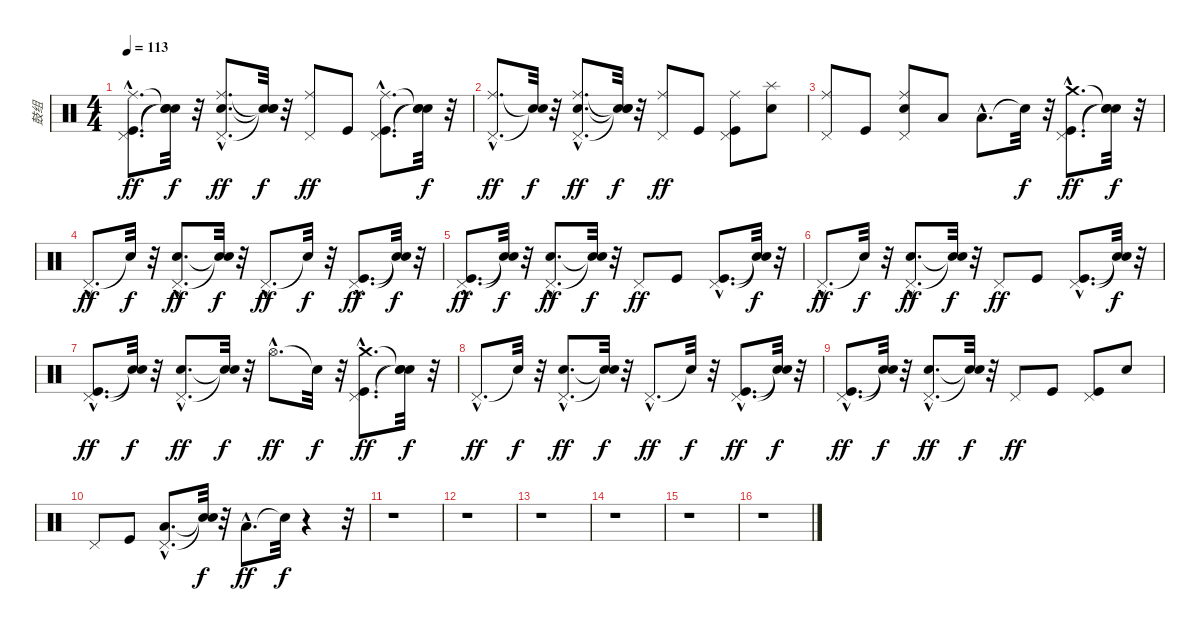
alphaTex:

\track ("鼓组" "鼓组") {instrument percussion}
\staff {score}
\articulation defaults
\ts (4 4)
\tempo 113
\clef neutral
\ks c
("Kick (hit)"{hac} "Pedal Hi-Hat (hit)"{hac} "Ride (middle)"{hac}).8{d dy ff} ("Snare (hit)"{t} "Snare (hit)"{t} "Snare (hit)"{t}).32{dy f} r.32 ("Snare (hit) 2"{hac} "Pedal Hi-Hat (hit)"{hac} "Ride (middle)"{hac}).8{d dy ff} ("Snare (hit)"{t} "Snare (hit)"{t} "Snare (hit)"{t}).32{dy f} r.32 ("Pedal Hi-Hat (hit)" "Ride (middle)").8{dy ff} "Kick (hit)".8 ("Kick (hit)"{hac} "Pedal Hi-Hat (hit)"{hac} "Ride (middle)"{hac}).8{d} ("Snare (hit)"{t} "Snare (hit)"{t} "Snare (hit)"{t}).32{dy f} r.32 |
("Pedal Hi-Hat (hit)"{hac} "Ride (middle)"{hac}).8{d dy ff} ("Snare (hit)"{t} "Snare (hit)"{t}).32{dy f} r.32 ("Snare (hit) 2"{hac} "Pedal Hi-Hat (hit)"{hac} "Ride (middle)"{hac}).8{d dy ff} ("Snare (hit)"{t} "Snare (hit)"{t} "Snare (hit)"{t}).32{dy f} r.32 ("Pedal Hi-Hat (hit)" "Ride (middle)").8{dy ff} "Kick (hit)".8 ("Kick (hit)" "Pedal Hi-Hat (hit)" "Ride (middle)").8 ("Snare (hit) 2" "Splash (hit)").8 |
("Pedal Hi-Hat (hit)" "Ride (middle)").8 "Kick (hit)".8 ("Snare (hit) 2" "Pedal Hi-Hat (hit)" "Ride (middle)").8 "Low Tom (hit)".8 "Low Floor Tom (hit)"{hac}.8{d} "Snare (hit)"{t}.32{dy f} r.32 ("Kick (hit)"{hac} "Pedal Hi-Hat (hit)"{hac} "Crash medium (hit)"{hac}).8{d dy ff} ("Snare (hit)"{t} "Snare (hit)"{t} "Snare (hit)"{t}).32{dy f} r.32 |
"Pedal Hi-Hat (hit)"{hac}.8{d dy ff} "Snare (hit)"{t}.32{dy f} r.32 ("Snare (hit) 2"{hac} "Pedal Hi-Hat (hit)"{hac}).8{d dy ff} ("Snare (hit)"{t} "Snare (hit)"{t}).32{dy f} r.32 "Pedal Hi-Hat (hit)"{hac}.8{d dy ff} "Snare (hit)"{t}.32{dy f} r.32 ("Kick (hit)"{hac} "Pedal Hi-Hat (hit)"{hac}).8{d dy ff} ("Snare (hit)"{t} "Snare (hit)"{t}).32{dy f} r.32 |
("Kick (hit)"{hac} "Pedal Hi-Hat (hit)"{hac}).8{d dy ff} ("Snare (hit)"{t} "Snare (hit)"{t}).32{dy f} r.32 ("Snare (hit) 2"{hac} "Pedal Hi-Hat (hit)"{hac}).8{d dy ff} ("Snare (hit)"{t} "Snare (hit)"{t}).32{dy f} r.32 "Pedal Hi-Hat (hit)".8{dy ff} "Kick (hit)".8 ("Kick (hit)"{hac} "Pedal Hi-Hat (hit)"{hac}).8{d} ("Snare (hit)"{t} "Snare (hit)"{t}).32{dy f} r.32 |
"Pedal Hi-Hat (hit)"{hac}.8{d dy ff} "Snare (hit)"{t}.32{dy f} r.32 ("Snare (hit) 2"{hac} "Pedal Hi-Hat (hit)"{hac}).8{d dy ff} ("Snare (hit)"{t} "Snare (hit)"{t}).32{dy f} r.32 "Pedal Hi-Hat (hit)".8{dy ff} "Kick (hit)".8 ("Kick (hit)"{hac} "Pedal Hi-Hat (hit)"{hac}).8{d} ("Snare (hit)"{t} "Snare (hit)"{t}).32{dy f} r.32 |
("Kick (hit)"{hac} "Pedal Hi-Hat (hit)"{hac}).8{d dy ff} ("Snare (hit)"{t} "Snare (hit)"{t}).32{dy f} r.32 ("Snare (hit) 2"{hac} "Pedal Hi-Hat (hit)"{hac}).8{d dy ff} ("Snare (hit)"{t} "Snare (hit)"{t}).32{dy f} r.32 "Hi-Hat (open)"{hac}.8{d dy ff} "Snare (hit)"{t}.32{dy f} r.32 ("Kick (hit)"{hac} "Pedal Hi-Hat (hit)"{hac} "Crash medium (hit)"{hac}).8{d dy ff} ("Snare (hit)"{t} "Snare (hit)"{t} "Snare (hit)"{t}).32{dy f} r.32 |
"Pedal Hi-Hat (hit)"{hac}.8{d dy ff} "Snare (hit)"{t}.32{dy f} r.32 ("Snare (hit) 2"{hac} "Pedal Hi-Hat (hit)"{hac}).8{d dy ff} ("Snare (hit)"{t} "Snare (hit)"{t}).32{dy f} r.32 "Pedal Hi-Hat (hit)"{hac}.8{d dy ff} "Snare (hit)"{t}.32{dy f} r.32 ("Kick (hit)"{hac} "Pedal Hi-Hat (hit)"{hac}).8{d dy ff} ("Snare (hit)"{t} "Snare (hit)"{t}).32{dy f} r.32 |
("Kick (hit)"{hac} "Pedal Hi-Hat (hit)"{hac}).8{d dy ff} ("Snare (hit)"{t} "Snare (hit)"{t}).32{dy f} r.32 ("Snare (hit) 2"{hac} "Pedal Hi-Hat (hit)"{hac}).8{d dy ff} ("Snare (hit)"{t} "Snare (hit)"{t}).32{dy f} r.32 "Pedal Hi-Hat (hit)".8{dy ff} "Kick (hit)".8 ("Kick (hit)" "Pedal Hi-Hat (hit)").8 "Snare (hit) 2".8 |
"Pedal Hi-Hat (hit)".8 "Kick (hit)".8 ("Pedal Hi-Hat (hit)"{hac} "Low Tom (hit)"{hac}).8{d} ("Snare (hit)"{t} "Snare (hit)"{t}).32{dy f} r.32 "Low Floor Tom (hit)"{hac}.8{d dy ff} "Snare (hit)"{t}.32{dy f} r.4 r.32 |
r.1 |
r.1 |
r.1 |
r.1 |
r.1 |
r.1
